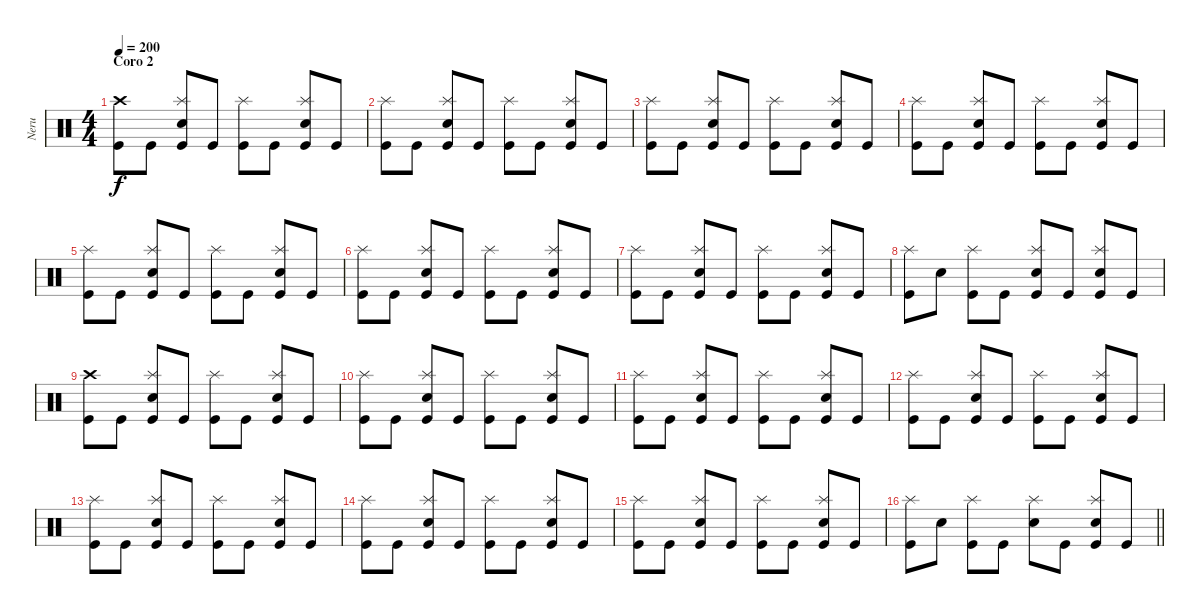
\track ("Neru" "Neru") {instrument percussion}
\staff {score}
\articulation defaults
\ts (4 4)
\section ("" "Coro 2")
\tempo 200
\clef neutral
\ks c
("Crash high (hit)" "Kick (hit)").8{dy f} "Kick (hit)".8 ("Splash (hit)" "Electric Snare (hit)" "Kick (hit)").8 "Kick (hit)".8 ("Splash (hit)" "Kick (hit)").8 "Kick (hit)".8 ("Splash (hit)" "Electric Snare (hit)" "Kick (hit)").8 "Kick (hit)".8 |
("Splash (hit)" "Kick (hit)").8 "Kick (hit)".8 ("Splash (hit)" "Electric Snare (hit)" "Kick (hit)").8 "Kick (hit)".8 ("Splash (hit)" "Kick (hit)").8 "Kick (hit)".8 ("Splash (hit)" "Electric Snare (hit)" "Kick (hit)").8 "Kick (hit)".8 |
("Splash (hit)" "Kick (hit)").8 "Kick (hit)".8 ("Splash (hit)" "Electric Snare (hit)" "Kick (hit)").8 "Kick (hit)".8 ("Splash (hit)" "Kick (hit)").8 "Kick (hit)".8 ("Splash (hit)" "Electric Snare (hit)" "Kick (hit)").8 "Kick (hit)".8 |
("Splash (hit)" "Kick (hit)").8 "Kick (hit)".8 ("Splash (hit)" "Electric Snare (hit)" "Kick (hit)").8 "Kick (hit)".8 ("Splash (hit)" "Kick (hit)").8 "Kick (hit)".8 ("Splash (hit)" "Electric Snare (hit)" "Kick (hit)").8 "Kick (hit)".8 |
("Splash (hit)" "Kick (hit)").8 "Kick (hit)".8 ("Splash (hit)" "Electric Snare (hit)" "Kick (hit)").8 "Kick (hit)".8 ("Splash (hit)" "Kick (hit)").8 "Kick (hit)".8 ("Splash (hit)" "Electric Snare (hit)" "Kick (hit)").8 "Kick (hit)".8 |
("Splash (hit)" "Kick (hit)").8 "Kick (hit)".8 ("Splash (hit)" "Electric Snare (hit)" "Kick (hit)").8 "Kick (hit)".8 ("Splash (hit)" "Kick (hit)").8 "Kick (hit)".8 ("Splash (hit)" "Electric Snare (hit)" "Kick (hit)").8 "Kick (hit)".8 |
("Splash (hit)" "Kick (hit)").8 "Kick (hit)".8 ("Splash (hit)" "Electric Snare (hit)" "Kick (hit)").8 "Kick (hit)".8 ("Splash (hit)" "Kick (hit)").8 "Kick (hit)".8 ("Splash (hit)" "Electric Snare (hit)" "Kick (hit)").8 "Kick (hit)".8 |
("Splash (hit)" "Kick (hit)").8 "Electric Snare (hit)".8 ("Splash (hit)" "Kick (hit)").8 "Kick (hit)".8 ("Splash (hit)" "Electric Snare (hit)" "Kick (hit)").8 "Kick (hit)".8 ("Splash (hit)" "Electric Snare (hit)" "Kick (hit)").8 "Kick (hit)".8 |
("Crash high (hit)" "Kick (hit)").8 "Kick (hit)".8 ("Splash (hit)" "Electric Snare (hit)" "Kick (hit)").8 "Kick (hit)".8 ("Splash (hit)" "Kick (hit)").8 "Kick (hit)".8 ("Splash (hit)" "Electric Snare (hit)" "Kick (hit)").8 "Kick (hit)".8 |
("Splash (hit)" "Kick (hit)").8 "Kick (hit)".8 ("Splash (hit)" "Electric Snare (hit)" "Kick (hit)").8 "Kick (hit)".8 ("Splash (hit)" "Kick (hit)").8 "Kick (hit)".8 ("Splash (hit)" "Electric Snare (hit)" "Kick (hit)").8 "Kick (hit)".8 |
("Splash (hit)" "Kick (hit)").8 "Kick (hit)".8 ("Splash (hit)" "Electric Snare (hit)" "Kick (hit)").8 "Kick (hit)".8 ("Splash (hit)" "Kick (hit)").8 "Kick (hit)".8 ("Splash (hit)" "Electric Snare (hit)" "Kick (hit)").8 "Kick (hit)".8 |
("Splash (hit)" "Kick (hit)").8 "Kick (hit)".8 ("Splash (hit)" "Electric Snare (hit)" "Kick (hit)").8 "Kick (hit)".8 ("Splash (hit)" "Kick (hit)").8 "Kick (hit)".8 ("Splash (hit)" "Electric Snare (hit)" "Kick (hit)").8 "Kick (hit)".8 |
("Splash (hit)" "Kick (hit)").8 "Kick (hit)".8 ("Splash (hit)" "Electric Snare (hit)" "Kick (hit)").8 "Kick (hit)".8 ("Splash (hit)" "Kick (hit)").8 "Kick (hit)".8 ("Splash (hit)" "Electric Snare (hit)" "Kick (hit)").8 "Kick (hit)".8 |
("Splash (hit)" "Kick (hit)").8 "Kick (hit)".8 ("Splash (hit)" "Electric Snare (hit)" "Kick (hit)").8 "Kick (hit)".8 ("Splash (hit)" "Kick (hit)").8 "Kick (hit)".8 ("Splash (hit)" "Electric Snare (hit)" "Kick (hit)").8 "Kick (hit)".8 |
("Splash (hit)" "Kick (hit)").8 "Kick (hit)".8 ("Splash (hit)" "Electric Snare (hit)" "Kick (hit)").8 "Kick (hit)".8 ("Splash (hit)" "Kick (hit)").8 "Kick (hit)".8 ("Splash (hit)" "Electric Snare (hit)" "Kick (hit)").8 "Kick (hit)".8 |
\barLineRight lightlight
("Splash (hit)" "Kick (hit)").8 "Electric Snare (hit)".8 ("Splash (hit)" "Kick (hit)").8 "Kick (hit)".8 ("Splash (hit)" "Electric Snare (hit)").8 "Kick (hit)".8 ("Splash (hit)" "Electric Snare (hit)" "Kick (hit)").8 "Kick (hit)".8
